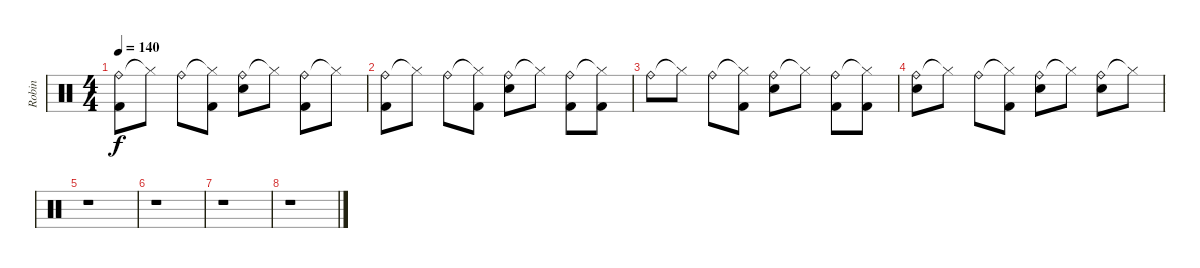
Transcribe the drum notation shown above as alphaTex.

\track ("Robin" "Robin") {instrument percussion}
\staff {score}
\articulation defaults
\ts (4 4)
\tempo 140
\clef neutral
\ks c
("Ride (bell)" "Kick (hit) 2").8{dy f} "Hi-Hat (closed)"{t}.8 "Ride (bell)".8 ("Hi-Hat (closed)"{t} "Kick (hit) 2").8 ("Ride (bell)" "Snare (hit) 2").8 "Hi-Hat (closed)"{t}.8 ("Ride (bell)" "Kick (hit) 2").8 "Hi-Hat (closed)"{t}.8 |
("Ride (bell)" "Kick (hit) 2").8 "Hi-Hat (closed)"{t}.8 "Ride (bell)".8 ("Hi-Hat (closed)"{t} "Kick (hit) 2").8 ("Ride (bell)" "Snare (hit) 2").8 "Hi-Hat (closed)"{t}.8 ("Ride (bell)" "Kick (hit) 2").8 ("Hi-Hat (closed)"{t} "Kick (hit) 2").8 |
"Ride (bell)".8 "Hi-Hat (closed)"{t}.8 "Ride (bell)".8 ("Hi-Hat (closed)"{t} "Kick (hit) 2").8 ("Ride (bell)" "Snare (hit) 2").8 "Hi-Hat (closed)"{t}.8 ("Ride (bell)" "Kick (hit) 2").8 ("Hi-Hat (closed)"{t} "Kick (hit) 2").8 |
("Ride (bell)" "Snare (hit) 2").8 "Hi-Hat (closed)"{t}.8 "Ride (bell)".8 ("Hi-Hat (closed)"{t} "Kick (hit) 2").8 ("Ride (bell)" "Snare (hit) 2").8 "Hi-Hat (closed)"{t}.8 ("Ride (bell)" "Snare (hit) 2").8 "Hi-Hat (closed)"{t}.8 |
r.1 |
r.1 |
r.1 |
r.1
